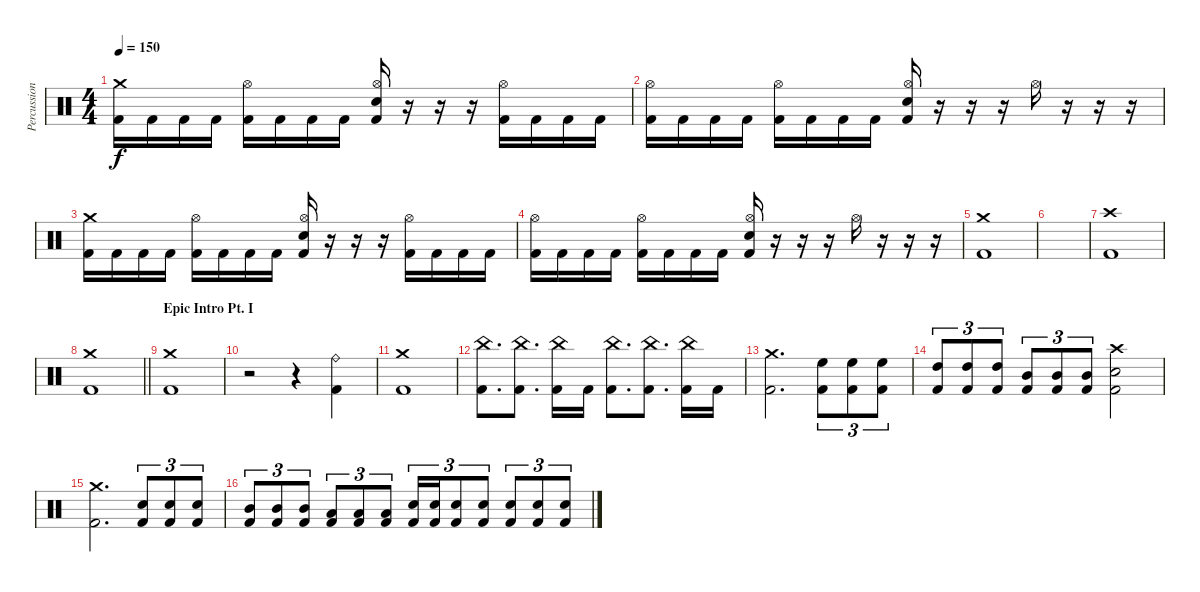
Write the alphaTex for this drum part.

\track ("Percussion" "Percussion") {instrument percussion}
\staff {score}
\articulation defaults
\ts (4 4)
\tempo 150
\clef neutral
\ks c
("Crash medium (hit)" "Kick (hit) 2").16{dy f} "Kick (hit) 2".16 "Kick (hit) 2".16 "Kick (hit) 2".16 ("Hi-Hat (open)" "Kick (hit) 2").16 "Kick (hit) 2".16 "Kick (hit) 2".16 "Kick (hit) 2".16 ("Hi-Hat (open)" "Electric Snare (hit)" "Kick (hit) 2").16 r.16 r.16 r.16 ("Hi-Hat (open)" "Kick (hit) 2").16 "Kick (hit) 2".16 "Kick (hit) 2".16 "Kick (hit) 2".16 |
("Hi-Hat (open)" "Kick (hit) 2").16 "Kick (hit) 2".16 "Kick (hit) 2".16 "Kick (hit) 2".16 ("Hi-Hat (open)" "Kick (hit) 2").16 "Kick (hit) 2".16 "Kick (hit) 2".16 "Kick (hit) 2".16 ("Hi-Hat (open)" "Electric Snare (hit)" "Kick (hit) 2").16 r.16 r.16 r.16 "Hi-Hat (open)".16 r.16 r.16 r.16 |
("Crash medium (hit)" "Kick (hit) 2").16 "Kick (hit) 2".16 "Kick (hit) 2".16 "Kick (hit) 2".16 ("Hi-Hat (open)" "Kick (hit) 2").16 "Kick (hit) 2".16 "Kick (hit) 2".16 "Kick (hit) 2".16 ("Hi-Hat (open)" "Electric Snare (hit)" "Kick (hit) 2").16 r.16 r.16 r.16 ("Hi-Hat (open)" "Kick (hit) 2").16 "Kick (hit) 2".16 "Kick (hit) 2".16 "Kick (hit) 2".16 |
("Hi-Hat (open)" "Kick (hit) 2").16 "Kick (hit) 2".16 "Kick (hit) 2".16 "Kick (hit) 2".16 ("Hi-Hat (open)" "Kick (hit) 2").16 "Kick (hit) 2".16 "Kick (hit) 2".16 "Kick (hit) 2".16 ("Hi-Hat (open)" "Electric Snare (hit)" "Kick (hit) 2").16 r.16 r.16 r.16 "Hi-Hat (open)".16 r.16 r.16 r.16 |
("Crash medium (hit)" "Kick (hit) 2").1 |
|
("Crash high (hit)" "Kick (hit) 2").1 |
\barLineRight lightlight
("Crash medium (hit)" "Kick (hit) 2").1 |
\section ("" "Epic Intro Pt. I")
("Crash medium (hit)" "Kick (hit) 2").1 |
r.2 r.4 ("Ride (bell)" "Kick (hit) 2").4 |
("Crash medium (hit)" "Kick (hit) 2").1 |
("China (hit)" "Kick (hit) 2").8{d} ("China (hit)" "Kick (hit) 2").8{d} ("China (hit)" "Kick (hit) 2").16 "Kick (hit) 2".16 ("China (hit)" "Kick (hit) 2").8{d} ("China (hit)" "Kick (hit) 2").8{d} ("China (hit)" "Kick (hit) 2").16 "Kick (hit) 2".16 |
("Crash medium (hit)" "Kick (hit) 2").2{d} ("High Floor Tom (hit)" "Kick (hit) 2").8{tu (3 2)} ("High Floor Tom (hit)" "Kick (hit) 2").8{tu (3 2)} ("High Floor Tom (hit)" "Kick (hit) 2").8{tu (3 2)} |
("High Tom (hit)" "Kick (hit) 2").8{tu (3 2)} ("High Tom (hit)" "Kick (hit) 2").8{tu (3 2)} ("High Tom (hit)" "Kick (hit) 2").8{tu (3 2)} ("Mid Tom (hit)" "Kick (hit) 2").8{tu (3 2)} ("Mid Tom (hit)" "Kick (hit) 2").8{tu (3 2)} ("Mid Tom (hit)" "Kick (hit) 2").8{tu (3 2)} ("Crash high (hit)" "Electric Snare (hit)" "Kick (hit) 2").2 |
("Crash medium (hit)" "Kick (hit) 2").2{d} ("Electric Snare (hit)" "Kick (hit) 2").8{tu (3 2)} ("Electric Snare (hit)" "Kick (hit) 2").8{tu (3 2)} ("Electric Snare (hit)" "Kick (hit) 2").8{tu (3 2)} |
("Mid Tom (hit)" "Kick (hit) 2").8{tu (3 2)} ("Mid Tom (hit)" "Kick (hit) 2").8{tu (3 2)} ("Mid Tom (hit)" "Kick (hit) 2").8{tu (3 2)} ("Low Tom (hit)" "Kick (hit) 2").8{tu (3 2)} ("Low Tom (hit)" "Kick (hit) 2").8{tu (3 2)} ("Low Tom (hit)" "Kick (hit) 2").8{tu (3 2)} ("Electric Snare (hit)" "Kick (hit) 2").16{tu (3 2)} ("Electric Snare (hit)" "Kick (hit) 2").16{tu (3 2)} ("Electric Snare (hit)" "Kick (hit) 2").8{tu (3 2)} ("Electric Snare (hit)" "Kick (hit) 2").8{tu (3 2)} ("Electric Snare (hit)" "Kick (hit) 2").8{tu (3 2)} ("Electric Snare (hit)" "Kick (hit) 2").8{tu (3 2)} ("Electric Snare (hit)" "Kick (hit) 2").8{tu (3 2)}
